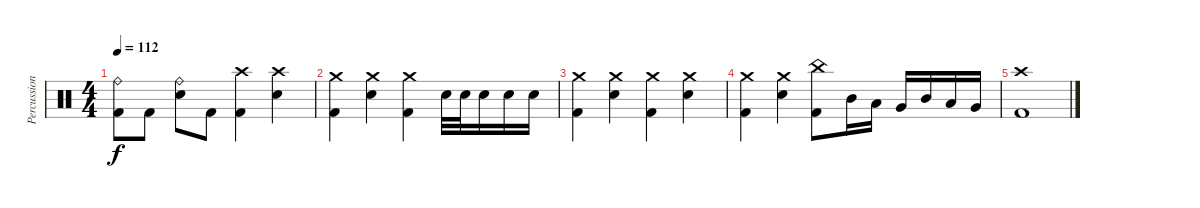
\track ("Percussion" "Percussion") {instrument percussion}
\staff {score}
\articulation defaults
\ts (4 4)
\tempo 112
\clef neutral
\ks c
("Ride (bell)" "Kick (hit) 2").8{dy f} "Kick (hit) 2".8 ("Ride (bell)" "Snare (hit) 2").8 "Kick (hit) 2".8 ("Crash high (hit)" "Kick (hit) 2").4 ("Crash high (hit)" "Snare (hit) 2").4 |
("Crash medium (hit)" "Kick (hit) 2").4 ("Crash medium (hit)" "Snare (hit) 2").4 ("Crash medium (hit)" "Kick (hit) 2").4 "Snare (hit) 2".32 "Snare (hit) 2".32 "Snare (hit) 2".16 "Snare (hit) 2".16 "Snare (hit) 2".16 |
("Crash medium (hit)" "Kick (hit) 2").4 ("Crash medium (hit)" "Snare (hit) 2").4 ("Crash medium (hit)" "Kick (hit) 2").4 ("Crash medium (hit)" "Snare (hit) 2").4 |
("Crash medium (hit)" "Kick (hit) 2").4 ("Crash medium (hit)" "Snare (hit) 2").4 ("China (hit)" "Kick (hit) 2").8 "Mid Tom (hit)".16 "Low Tom (hit)".16 "Very Low Tom (hit)".16 "Mid Tom (hit)".16 "Low Tom (hit)".16 "Very Low Tom (hit)".16 |
("Crash high (hit)" "Kick (hit) 2").1
